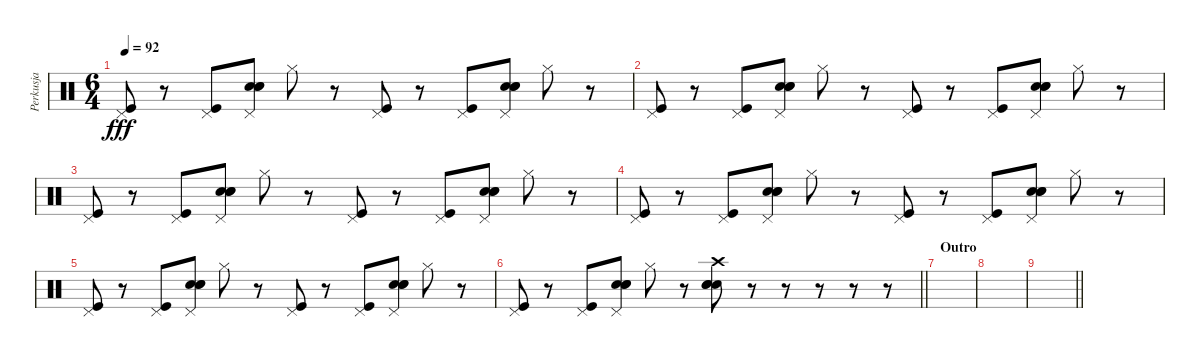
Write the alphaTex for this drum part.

\track ("Perkusja" "Perkusja") {instrument percussion}
\staff {score}
\articulation defaults
\ts (6 4)
\tempo 92
\clef neutral
\ks c
("Pedal Hi-Hat (hit)" "Kick (hit)").8{dy fff} r.8 ("Pedal Hi-Hat (hit)" "Kick (hit)").8 ("Pedal Hi-Hat (hit)" "Electric Snare (hit)" "Electric Snare (hit)" "Electric Snare (hit)").8 "Hi-Hat (closed)".8 r.8 ("Pedal Hi-Hat (hit)" "Kick (hit)").8 r.8 ("Pedal Hi-Hat (hit)" "Kick (hit)").8 ("Pedal Hi-Hat (hit)" "Electric Snare (hit)" "Electric Snare (hit)" "Electric Snare (hit)").8 "Hi-Hat (closed)".8 r.8 |
("Pedal Hi-Hat (hit)" "Kick (hit)").8 r.8 ("Pedal Hi-Hat (hit)" "Kick (hit)").8 ("Pedal Hi-Hat (hit)" "Electric Snare (hit)" "Electric Snare (hit)" "Electric Snare (hit)").8 "Hi-Hat (closed)".8 r.8 ("Pedal Hi-Hat (hit)" "Kick (hit)").8 r.8 ("Pedal Hi-Hat (hit)" "Kick (hit)").8 ("Pedal Hi-Hat (hit)" "Electric Snare (hit)" "Electric Snare (hit)" "Electric Snare (hit)").8 "Hi-Hat (closed)".8 r.8 |
("Pedal Hi-Hat (hit)" "Kick (hit)").8 r.8 ("Pedal Hi-Hat (hit)" "Kick (hit)").8 ("Pedal Hi-Hat (hit)" "Electric Snare (hit)" "Electric Snare (hit)" "Electric Snare (hit)").8 "Hi-Hat (closed)".8 r.8 ("Pedal Hi-Hat (hit)" "Kick (hit)").8 r.8 ("Pedal Hi-Hat (hit)" "Kick (hit)").8 ("Pedal Hi-Hat (hit)" "Electric Snare (hit)" "Electric Snare (hit)" "Electric Snare (hit)").8 "Hi-Hat (closed)".8 r.8 |
("Pedal Hi-Hat (hit)" "Kick (hit)").8 r.8 ("Pedal Hi-Hat (hit)" "Kick (hit)").8 ("Pedal Hi-Hat (hit)" "Electric Snare (hit)" "Electric Snare (hit)" "Electric Snare (hit)").8 "Hi-Hat (closed)".8 r.8 ("Pedal Hi-Hat (hit)" "Kick (hit)").8 r.8 ("Pedal Hi-Hat (hit)" "Kick (hit)").8 ("Pedal Hi-Hat (hit)" "Electric Snare (hit)" "Electric Snare (hit)" "Electric Snare (hit)").8 "Hi-Hat (closed)".8 r.8 |
("Pedal Hi-Hat (hit)" "Kick (hit)").8 r.8 ("Pedal Hi-Hat (hit)" "Kick (hit)").8 ("Pedal Hi-Hat (hit)" "Electric Snare (hit)" "Electric Snare (hit)" "Electric Snare (hit)").8 "Hi-Hat (closed)".8 r.8 ("Pedal Hi-Hat (hit)" "Kick (hit)").8 r.8 ("Pedal Hi-Hat (hit)" "Kick (hit)").8 ("Pedal Hi-Hat (hit)" "Electric Snare (hit)" "Electric Snare (hit)" "Electric Snare (hit)").8 "Hi-Hat (closed)".8 r.8 |
\barLineRight lightlight
("Pedal Hi-Hat (hit)" "Kick (hit)").8 r.8 ("Pedal Hi-Hat (hit)" "Kick (hit)").8 ("Pedal Hi-Hat (hit)" "Electric Snare (hit)" "Electric Snare (hit)" "Electric Snare (hit)").8 "Hi-Hat (closed)".8 r.8 ("Crash high (hit)" "Electric Snare (hit)" "Electric Snare (hit)" "Electric Snare (hit)").8 r.8 r.8 r.8 r.8 r.8 |
\section ("" "Outro")
|
|
\barLineRight lightlight
